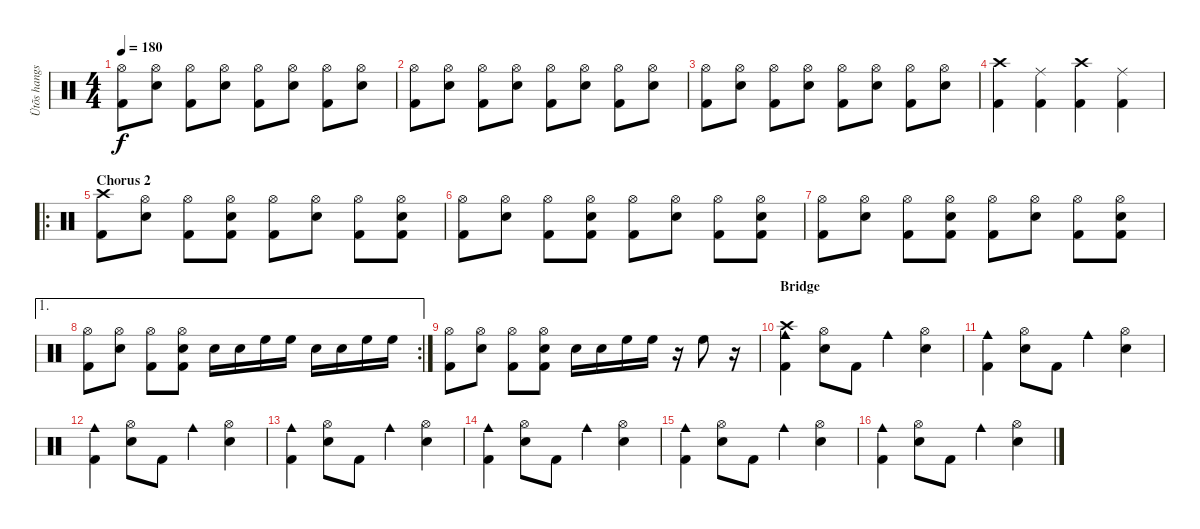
\track ("Ütõs hangszer" "Ütõs hangs") {instrument percussion}
\staff {score}
\articulation defaults
\ts (4 4)
\tempo 180
\clef neutral
\ks c
("Hi-Hat (open)" "Kick (hit) 2").8{dy f} ("Hi-Hat (open)" "Electric Snare (hit)").8 ("Hi-Hat (open)" "Kick (hit) 2").8 ("Hi-Hat (open)" "Electric Snare (hit)").8 ("Hi-Hat (open)" "Kick (hit) 2").8 ("Hi-Hat (open)" "Electric Snare (hit)").8 ("Hi-Hat (open)" "Kick (hit) 2").8 ("Hi-Hat (open)" "Electric Snare (hit)").8 |
("Hi-Hat (open)" "Kick (hit) 2").8 ("Hi-Hat (open)" "Electric Snare (hit)").8 ("Hi-Hat (open)" "Kick (hit) 2").8 ("Hi-Hat (open)" "Electric Snare (hit)").8 ("Hi-Hat (open)" "Kick (hit) 2").8 ("Hi-Hat (open)" "Electric Snare (hit)").8 ("Hi-Hat (open)" "Kick (hit) 2").8 ("Hi-Hat (open)" "Electric Snare (hit)").8 |
("Hi-Hat (open)" "Kick (hit) 2").8 ("Hi-Hat (open)" "Electric Snare (hit)").8 ("Hi-Hat (open)" "Kick (hit) 2").8 ("Hi-Hat (open)" "Electric Snare (hit)").8 ("Hi-Hat (open)" "Kick (hit) 2").8 ("Hi-Hat (open)" "Electric Snare (hit)").8 ("Hi-Hat (open)" "Kick (hit) 2").8 ("Hi-Hat (open)" "Electric Snare (hit)").8 |
("Crash high (hit)" "Kick (hit) 2").4 ("Ride (middle)" "Kick (hit) 2").4 ("Crash high (hit)" "Kick (hit) 2").4 ("Ride (middle)" "Kick (hit) 2").4 |
\ro
\section ("" "Chorus 2")
("Crash high (hit)" "Kick (hit) 2").8 ("Hi-Hat (open)" "Electric Snare (hit)").8 ("Hi-Hat (open)" "Kick (hit) 2").8 ("Hi-Hat (open)" "Electric Snare (hit)" "Kick (hit) 2").8 ("Hi-Hat (open)" "Kick (hit) 2").8 ("Hi-Hat (open)" "Electric Snare (hit)").8 ("Hi-Hat (open)" "Kick (hit) 2").8 ("Hi-Hat (open)" "Electric Snare (hit)" "Kick (hit) 2").8 |
("Hi-Hat (open)" "Kick (hit) 2").8 ("Hi-Hat (open)" "Electric Snare (hit)").8 ("Hi-Hat (open)" "Kick (hit) 2").8 ("Hi-Hat (open)" "Electric Snare (hit)" "Kick (hit) 2").8 ("Hi-Hat (open)" "Kick (hit) 2").8 ("Hi-Hat (open)" "Electric Snare (hit)").8 ("Hi-Hat (open)" "Kick (hit) 2").8 ("Hi-Hat (open)" "Electric Snare (hit)" "Kick (hit) 2").8 |
("Hi-Hat (open)" "Kick (hit) 2").8 ("Hi-Hat (open)" "Electric Snare (hit)").8 ("Hi-Hat (open)" "Kick (hit) 2").8 ("Hi-Hat (open)" "Electric Snare (hit)" "Kick (hit) 2").8 ("Hi-Hat (open)" "Kick (hit) 2").8 ("Hi-Hat (open)" "Electric Snare (hit)").8 ("Hi-Hat (open)" "Kick (hit) 2").8 ("Hi-Hat (open)" "Electric Snare (hit)" "Kick (hit) 2").8 |
\ae 1
\rc 2
("Hi-Hat (open)" "Kick (hit) 2").8 ("Hi-Hat (open)" "Electric Snare (hit)").8 ("Hi-Hat (open)" "Kick (hit) 2").8 ("Hi-Hat (open)" "Electric Snare (hit)" "Kick (hit) 2").8 "Electric Snare (hit)".16 "Electric Snare (hit)".16 "High Floor Tom (hit)".16 "High Floor Tom (hit)".16 "Electric Snare (hit)".16 "Electric Snare (hit)".16 "High Floor Tom (hit)".16 "High Floor Tom (hit)".16 |
("Hi-Hat (open)" "Kick (hit) 2").8 ("Hi-Hat (open)" "Electric Snare (hit)").8 ("Hi-Hat (open)" "Kick (hit) 2").8 ("Hi-Hat (open)" "Electric Snare (hit)" "Kick (hit) 2").8 "Electric Snare (hit)".16 "Electric Snare (hit)".16 "High Floor Tom (hit)".16 "High Floor Tom (hit)".16 r.16 "High Floor Tom (hit)".8 r.16 |
\section ("" "Bridge")
("Crash high (hit)" "Cowbell medium (hit)" "Kick (hit) 2").4 ("Hi-Hat (open)" "Electric Snare (hit)").8 "Kick (hit) 2".8 "Cowbell medium (hit)".4 ("Hi-Hat (open)" "Electric Snare (hit)").4 |
("Cowbell medium (hit)" "Kick (hit) 2").4 ("Hi-Hat (open)" "Electric Snare (hit)").8 "Kick (hit) 2".8 "Cowbell medium (hit)".4 ("Hi-Hat (open)" "Electric Snare (hit)").4 |
("Cowbell medium (hit)" "Kick (hit) 2").4 ("Hi-Hat (open)" "Electric Snare (hit)").8 "Kick (hit) 2".8 "Cowbell medium (hit)".4 ("Hi-Hat (open)" "Electric Snare (hit)").4 |
("Cowbell medium (hit)" "Kick (hit) 2").4 ("Hi-Hat (open)" "Electric Snare (hit)").8 "Kick (hit) 2".8 "Cowbell medium (hit)".4 ("Hi-Hat (open)" "Electric Snare (hit)").4 |
("Cowbell medium (hit)" "Kick (hit) 2").4 ("Hi-Hat (open)" "Electric Snare (hit)").8 "Kick (hit) 2".8 "Cowbell medium (hit)".4 ("Hi-Hat (open)" "Electric Snare (hit)").4 |
("Cowbell medium (hit)" "Kick (hit) 2").4 ("Hi-Hat (open)" "Electric Snare (hit)").8 "Kick (hit) 2".8 "Cowbell medium (hit)".4 ("Hi-Hat (open)" "Electric Snare (hit)").4 |
("Cowbell medium (hit)" "Kick (hit) 2").4 ("Hi-Hat (open)" "Electric Snare (hit)").8 "Kick (hit) 2".8 "Cowbell medium (hit)".4 ("Hi-Hat (open)" "Electric Snare (hit)").4
